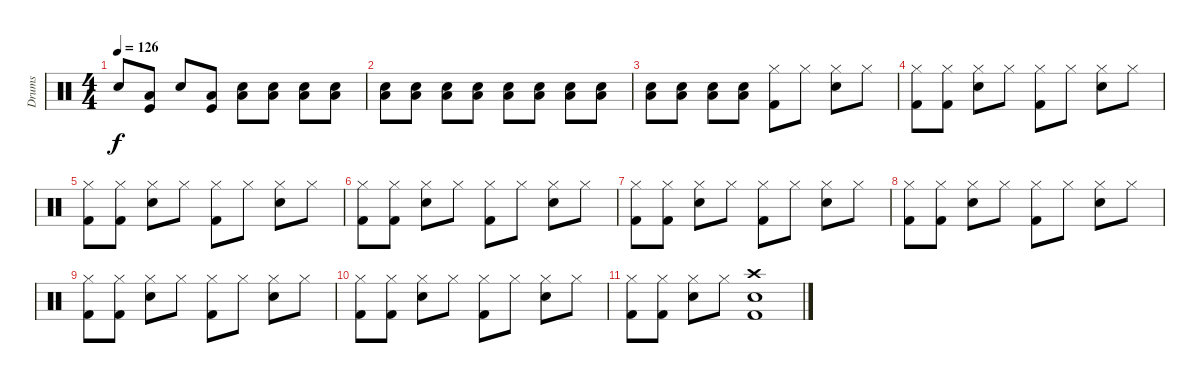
\track ("Drums" "Drums") {instrument percussion}
\staff {score}
\articulation defaults
\ts (4 4)
\tempo 126
\clef neutral
\ks c "Electric Snare (hit)".8{dy f}
("Kick (hit)" "Low Floor Tom (hit)").8 "Electric Snare (hit)".8 ("Kick (hit)" "Low Floor Tom (hit)").8 ("Low Floor Tom (hit)" "Electric Snare (hit)").8 ("Low Floor Tom (hit)" "Electric Snare (hit)").8 ("Low Floor Tom (hit)" "Electric Snare (hit)").8 ("Low Floor Tom (hit)" "Electric Snare (hit)").8 |
("Low Floor Tom (hit)" "Electric Snare (hit)").8 ("Low Floor Tom (hit)" "Electric Snare (hit)").8 ("Low Floor Tom (hit)" "Electric Snare (hit)").8 ("Low Floor Tom (hit)" "Electric Snare (hit)").8 ("Low Floor Tom (hit)" "Electric Snare (hit)").8 ("Low Floor Tom (hit)" "Electric Snare (hit)").8 ("Low Floor Tom (hit)" "Electric Snare (hit)").8 ("Low Floor Tom (hit)" "Electric Snare (hit)").8 |
("Low Floor Tom (hit)" "Electric Snare (hit)").8 ("Low Floor Tom (hit)" "Electric Snare (hit)").8 ("Low Floor Tom (hit)" "Electric Snare (hit)").8 ("Low Floor Tom (hit)" "Electric Snare (hit)").8 ("Kick (hit) 2" "Hi-Hat (closed)").8 "Hi-Hat (closed)".8 ("Electric Snare (hit)" "Hi-Hat (closed)").8 "Hi-Hat (closed)".8 |
("Kick (hit) 2" "Hi-Hat (closed)").8 ("Kick (hit) 2" "Hi-Hat (closed)").8 ("Electric Snare (hit)" "Hi-Hat (closed)").8 "Hi-Hat (closed)".8 ("Kick (hit) 2" "Hi-Hat (closed)").8 "Hi-Hat (closed)".8 ("Electric Snare (hit)" "Hi-Hat (closed)").8 "Hi-Hat (closed)".8 |
("Kick (hit) 2" "Hi-Hat (closed)").8 ("Kick (hit) 2" "Hi-Hat (closed)").8 ("Electric Snare (hit)" "Hi-Hat (closed)").8 "Hi-Hat (closed)".8 ("Kick (hit) 2" "Hi-Hat (closed)").8 "Hi-Hat (closed)".8 ("Electric Snare (hit)" "Hi-Hat (closed)").8 "Hi-Hat (closed)".8 |
("Kick (hit) 2" "Hi-Hat (closed)").8 ("Kick (hit) 2" "Hi-Hat (closed)").8 ("Electric Snare (hit)" "Hi-Hat (closed)").8 "Hi-Hat (closed)".8 ("Kick (hit) 2" "Hi-Hat (closed)").8 "Hi-Hat (closed)".8 ("Electric Snare (hit)" "Hi-Hat (closed)").8 "Hi-Hat (closed)".8 |
("Kick (hit) 2" "Hi-Hat (closed)").8 ("Kick (hit) 2" "Hi-Hat (closed)").8 ("Electric Snare (hit)" "Hi-Hat (closed)").8 "Hi-Hat (closed)".8 ("Kick (hit) 2" "Hi-Hat (closed)").8 "Hi-Hat (closed)".8 ("Electric Snare (hit)" "Hi-Hat (closed)").8 "Hi-Hat (closed)".8 |
("Kick (hit) 2" "Hi-Hat (closed)").8 ("Kick (hit) 2" "Hi-Hat (closed)").8 ("Electric Snare (hit)" "Hi-Hat (closed)").8 "Hi-Hat (closed)".8 ("Kick (hit) 2" "Hi-Hat (closed)").8 "Hi-Hat (closed)".8 ("Electric Snare (hit)" "Hi-Hat (closed)").8 "Hi-Hat (closed)".8 |
("Kick (hit) 2" "Hi-Hat (closed)").8 ("Kick (hit) 2" "Hi-Hat (closed)").8 ("Electric Snare (hit)" "Hi-Hat (closed)").8 "Hi-Hat (closed)".8 ("Kick (hit) 2" "Hi-Hat (closed)").8 "Hi-Hat (closed)".8 ("Electric Snare (hit)" "Hi-Hat (closed)").8 "Hi-Hat (closed)".8 |
("Kick (hit) 2" "Hi-Hat (closed)").8 ("Kick (hit) 2" "Hi-Hat (closed)").8 ("Electric Snare (hit)" "Hi-Hat (closed)").8 "Hi-Hat (closed)".8 ("Kick (hit) 2" "Hi-Hat (closed)").8 "Hi-Hat (closed)".8 ("Electric Snare (hit)" "Hi-Hat (closed)").8 "Hi-Hat (closed)".8 |
("Kick (hit) 2" "Hi-Hat (closed)").8 ("Kick (hit) 2" "Hi-Hat (closed)").8 ("Electric Snare (hit)" "Hi-Hat (closed)").8 "Hi-Hat (closed)".8 ("Electric Snare (hit)" "Kick (hit) 2" "Crash high (hit)").1
